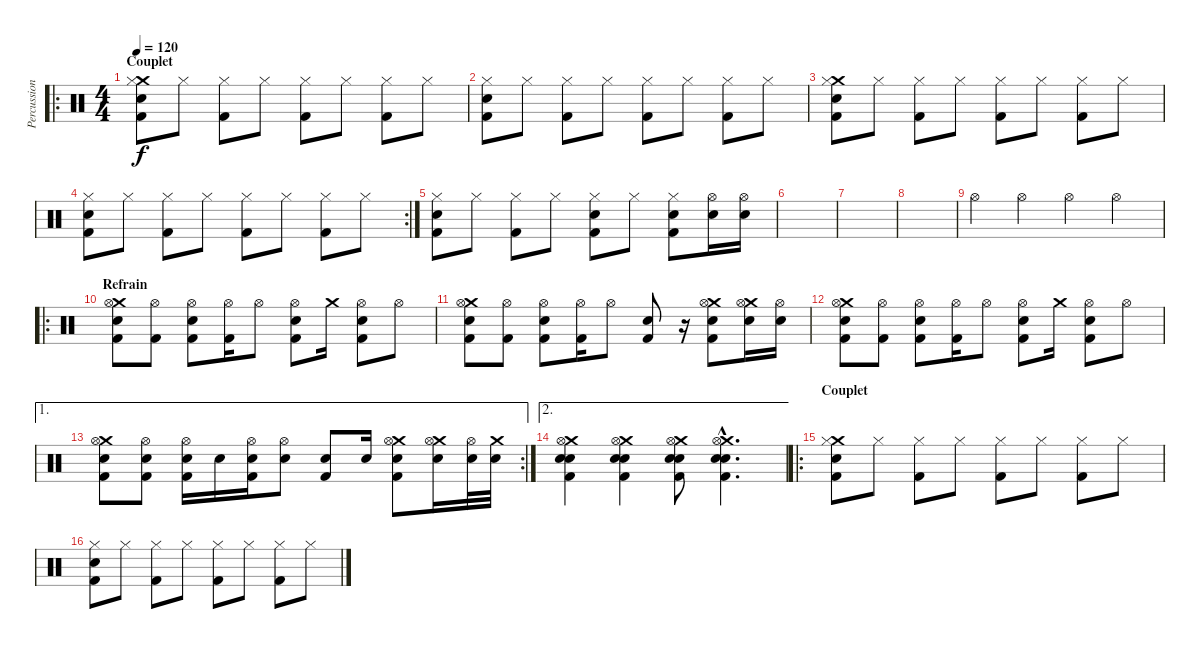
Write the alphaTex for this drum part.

\track ("Percussions" "Percussion") {instrument percussion}
\staff {score}
\articulation defaults
\ro
\ts (4 4)
\section ("" "Couplet")
\tempo 120
\clef neutral
\ks c
("Crash medium (hit)" "Hi-Hat (closed)" "Kick (hit) 2" "Electric Snare (hit)").8{dy f} "Hi-Hat (closed)".8 ("Hi-Hat (closed)" "Kick (hit) 2").8 "Hi-Hat (closed)".8 ("Hi-Hat (closed)" "Kick (hit) 2").8 "Hi-Hat (closed)".8 ("Hi-Hat (closed)" "Kick (hit) 2").8 "Hi-Hat (closed)".8 |
("Hi-Hat (closed)" "Kick (hit) 2" "Electric Snare (hit)").8 "Hi-Hat (closed)".8 ("Hi-Hat (closed)" "Kick (hit) 2").8 "Hi-Hat (closed)".8 ("Hi-Hat (closed)" "Kick (hit) 2").8 "Hi-Hat (closed)".8 ("Hi-Hat (closed)" "Kick (hit) 2").8 "Hi-Hat (closed)".8 |
("Crash medium (hit)" "Hi-Hat (closed)" "Kick (hit) 2" "Electric Snare (hit)").8 "Hi-Hat (closed)".8 ("Hi-Hat (closed)" "Kick (hit) 2").8 "Hi-Hat (closed)".8 ("Hi-Hat (closed)" "Kick (hit) 2").8 "Hi-Hat (closed)".8 ("Hi-Hat (closed)" "Kick (hit) 2").8 "Hi-Hat (closed)".8 |
\rc 2
("Hi-Hat (closed)" "Kick (hit) 2" "Electric Snare (hit)").8 "Hi-Hat (closed)".8 ("Hi-Hat (closed)" "Kick (hit) 2").8 "Hi-Hat (closed)".8 ("Hi-Hat (closed)" "Kick (hit) 2").8 "Hi-Hat (closed)".8 ("Hi-Hat (closed)" "Kick (hit) 2").8 "Hi-Hat (closed)".8 |
("Hi-Hat (closed)" "Kick (hit) 2" "Electric Snare (hit)").8 "Hi-Hat (closed)".8 ("Hi-Hat (closed)" "Kick (hit) 2").8 "Hi-Hat (closed)".8 ("Hi-Hat (closed)" "Kick (hit) 2" "Electric Snare (hit)").8 "Hi-Hat (closed)".8 ("Hi-Hat (closed)" "Kick (hit) 2" "Electric Snare (hit)").8 ("Hi-Hat (open)" "Electric Snare (hit)").16 ("Hi-Hat (open)" "Electric Snare (hit)").16 |
|
|
|
"Hi-Hat (open)".4 "Hi-Hat (open)".4 "Hi-Hat (open)".4 "Hi-Hat (open)".4 |
\ro
\section ("" "Refrain")
("Crash medium (hit)" "Kick (hit) 2" "Hi-Hat (open)" "Electric Snare (hit)").8 ("Kick (hit) 2" "Hi-Hat (open)").8 ("Kick (hit) 2" "Hi-Hat (open)" "Electric Snare (hit)").8 ("Kick (hit) 2" "Hi-Hat (open)").16 "Hi-Hat (open)".8 ("Kick (hit) 2" "Hi-Hat (open)" "Electric Snare (hit)").8 "Crash medium (hit)".16 ("Kick (hit) 2" "Hi-Hat (open)" "Electric Snare (hit)").8 "Hi-Hat (open)".8 |
("Crash medium (hit)" "Kick (hit) 2" "Hi-Hat (open)" "Electric Snare (hit)").8 ("Kick (hit) 2" "Hi-Hat (open)").8 ("Kick (hit) 2" "Hi-Hat (open)" "Electric Snare (hit)").8 ("Kick (hit) 2" "Hi-Hat (open)").16 "Hi-Hat (open)".8 ("Kick (hit) 2" "Electric Snare (hit)").8 r.16 ("Crash medium (hit)" "Kick (hit) 2" "Hi-Hat (open)" "Electric Snare (hit)").8 ("Crash medium (hit)" "Hi-Hat (open)" "Electric Snare (hit)").16 ("Hi-Hat (open)" "Electric Snare (hit)").16 |
("Crash medium (hit)" "Kick (hit) 2" "Hi-Hat (open)" "Electric Snare (hit)").8 ("Kick (hit) 2" "Hi-Hat (open)").8 ("Kick (hit) 2" "Hi-Hat (open)" "Electric Snare (hit)").8 ("Kick (hit) 2" "Hi-Hat (open)").16 "Hi-Hat (open)".8 ("Kick (hit) 2" "Hi-Hat (open)" "Electric Snare (hit)").8 "Crash medium (hit)".16 ("Kick (hit) 2" "Hi-Hat (open)" "Electric Snare (hit)").8 "Hi-Hat (open)".8 |
\ae 1
\rc 2
("Crash medium (hit)" "Kick (hit) 2" "Hi-Hat (open)" "Electric Snare (hit)").8 ("Kick (hit) 2" "Hi-Hat (open)" "Electric Snare (hit)").8 ("Kick (hit) 2" "Hi-Hat (open)" "Electric Snare (hit)").16 "Electric Snare (hit)".16 ("Kick (hit) 2" "Hi-Hat (open)" "Electric Snare (hit)").16 ("Hi-Hat (open)" "Electric Snare (hit)").8 ("Kick (hit) 2" "Electric Snare (hit)").8 "Electric Snare (hit)".16 ("Crash medium (hit)" "Kick (hit) 2" "Hi-Hat (open)" "Electric Snare (hit)").8 ("Crash medium (hit)" "Hi-Hat (open)" "Electric Snare (hit)").16 ("Hi-Hat (open)" "Electric Snare (hit)").32 ("Crash medium (hit)" "Electric Snare (hit)").32 |
\ae 2
("Crash medium (hit)" "Kick (hit) 2" "Hi-Hat (open)" "Electric Snare (hit)" "Snare (hit) 2").4 ("Crash medium (hit)" "Kick (hit) 2" "Hi-Hat (open)" "Electric Snare (hit)" "Snare (hit) 2").4 ("Crash medium (hit)" "Kick (hit) 2" "Hi-Hat (open)" "Electric Snare (hit)" "Snare (hit) 2").8 ("Crash medium (hit)"{hac} "Kick (hit) 2"{hac} "Hi-Hat (open)"{hac} "Electric Snare (hit)"{hac} "Snare (hit) 2"{hac}).4{d} |
\ro
\section ("" "Couplet")
("Crash medium (hit)" "Hi-Hat (closed)" "Kick (hit) 2" "Electric Snare (hit)").8 "Hi-Hat (closed)".8 ("Hi-Hat (closed)" "Kick (hit) 2").8 "Hi-Hat (closed)".8 ("Hi-Hat (closed)" "Kick (hit) 2").8 "Hi-Hat (closed)".8 ("Hi-Hat (closed)" "Kick (hit) 2").8 "Hi-Hat (closed)".8 |
("Hi-Hat (closed)" "Kick (hit) 2" "Electric Snare (hit)").8 "Hi-Hat (closed)".8 ("Hi-Hat (closed)" "Kick (hit) 2").8 "Hi-Hat (closed)".8 ("Hi-Hat (closed)" "Kick (hit) 2").8 "Hi-Hat (closed)".8 ("Hi-Hat (closed)" "Kick (hit) 2").8 "Hi-Hat (closed)".8
